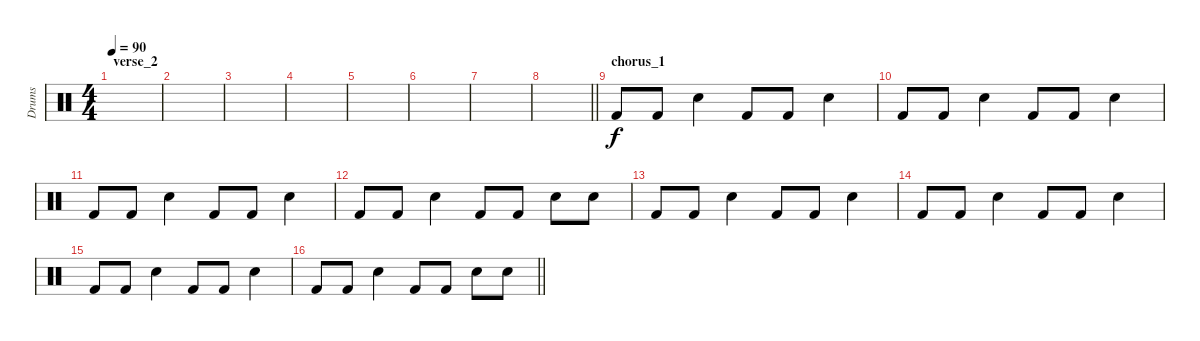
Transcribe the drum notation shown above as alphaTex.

\track ("Drums" "Drums") {instrument percussion}
\staff {score}
\articulation defaults
\ts (4 4)
\section ("" "verse_2")
\tempo 90
\clef neutral
\ks c
|
|
|
|
|
|
|
\barLineRight lightlight
|
\section ("" "chorus_1")
"Kick (hit) 2".8 "Kick (hit) 2".8 "Electric Snare (hit)".4 "Kick (hit) 2".8 "Kick (hit) 2".8 "Electric Snare (hit)".4 |
"Kick (hit) 2".8 "Kick (hit) 2".8 "Electric Snare (hit)".4 "Kick (hit) 2".8 "Kick (hit) 2".8 "Electric Snare (hit)".4 |
"Kick (hit) 2".8 "Kick (hit) 2".8 "Electric Snare (hit)".4 "Kick (hit) 2".8 "Kick (hit) 2".8 "Electric Snare (hit)".4 |
"Kick (hit) 2".8 "Kick (hit) 2".8 "Electric Snare (hit)".4 "Kick (hit) 2".8 "Kick (hit) 2".8 "Electric Snare (hit)".8 "Snare (hit) 2".8 |
"Kick (hit) 2".8 "Kick (hit) 2".8 "Electric Snare (hit)".4 "Kick (hit) 2".8 "Kick (hit) 2".8 "Electric Snare (hit)".4 |
"Kick (hit) 2".8 "Kick (hit) 2".8 "Electric Snare (hit)".4 "Kick (hit) 2".8 "Kick (hit) 2".8 "Electric Snare (hit)".4 |
"Kick (hit) 2".8 "Kick (hit) 2".8 "Electric Snare (hit)".4 "Kick (hit) 2".8 "Kick (hit) 2".8 "Electric Snare (hit)".4 |
\barLineRight lightlight "Kick (hit) 2".8 "Kick (hit) 2".8 "Electric Snare (hit)".4 "Kick (hit) 2".8 "Kick (hit) 2".8 "Electric Snare (hit)".8 "Snare (hit) 2".8
